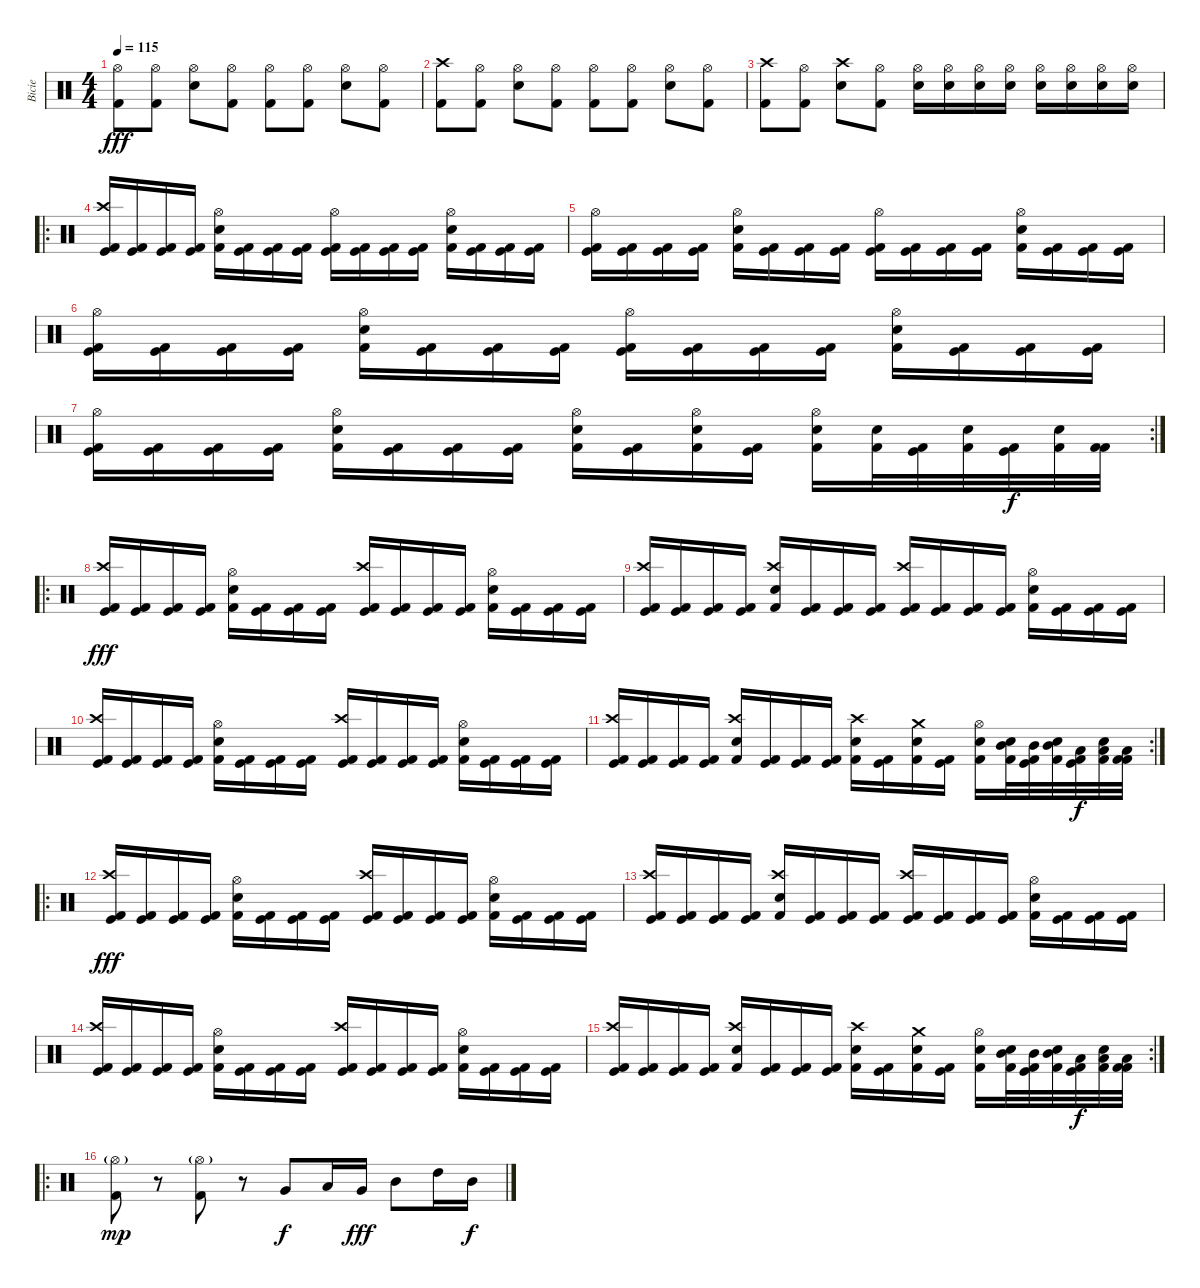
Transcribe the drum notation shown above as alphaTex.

\track ("Bicie" "Bicie") {instrument percussion}
\staff {score}
\articulation defaults
\ts (4 4)
\tempo 115
\clef neutral
\ks c
("Hi-Hat (open)" "Kick (hit) 2").8{dy fff} ("Hi-Hat (open)" "Kick (hit) 2").8 ("Hi-Hat (open)" "Snare (hit) 2").8 ("Hi-Hat (open)" "Kick (hit) 2").8 ("Hi-Hat (open)" "Kick (hit) 2").8 ("Hi-Hat (open)" "Kick (hit) 2").8 ("Hi-Hat (open)" "Snare (hit) 2").8 ("Hi-Hat (open)" "Kick (hit) 2").8 |
("Crash high (hit)" "Kick (hit) 2").8 ("Hi-Hat (open)" "Kick (hit) 2").8 ("Hi-Hat (open)" "Snare (hit) 2").8 ("Hi-Hat (open)" "Kick (hit) 2").8 ("Hi-Hat (open)" "Kick (hit) 2").8 ("Hi-Hat (open)" "Kick (hit) 2").8 ("Hi-Hat (open)" "Snare (hit) 2").8 ("Hi-Hat (open)" "Kick (hit) 2").8 |
("Crash high (hit)" "Kick (hit) 2").8 ("Hi-Hat (open)" "Kick (hit) 2").8 ("Crash high (hit)" "Snare (hit) 2").8 ("Hi-Hat (open)" "Kick (hit) 2").8 ("Hi-Hat (open)" "Electric Snare (hit)").16 ("Hi-Hat (open)" "Electric Snare (hit)").16 ("Hi-Hat (open)" "Electric Snare (hit)").16 ("Hi-Hat (open)" "Electric Snare (hit)").16 ("Hi-Hat (open)" "Electric Snare (hit)").16 ("Hi-Hat (open)" "Electric Snare (hit)").16 ("Hi-Hat (open)" "Electric Snare (hit)").16 ("Hi-Hat (open)" "Electric Snare (hit)").16 |
\ro
("Crash high (hit)" "Kick (hit)" "Kick (hit) 2").16 ("Kick (hit)" "Kick (hit) 2").16 ("Kick (hit)" "Kick (hit) 2").16 ("Kick (hit)" "Kick (hit) 2").16 ("Hi-Hat (open)" "Electric Snare (hit)" "Kick (hit) 2").16 ("Kick (hit)" "Kick (hit) 2").16 ("Kick (hit)" "Kick (hit) 2").16 ("Kick (hit)" "Kick (hit) 2").16 ("Hi-Hat (open)" "Kick (hit)" "Kick (hit) 2").16 ("Kick (hit)" "Kick (hit) 2").16 ("Kick (hit)" "Kick (hit) 2").16 ("Kick (hit)" "Kick (hit) 2").16 ("Hi-Hat (open)" "Electric Snare (hit)" "Kick (hit) 2").16 ("Kick (hit)" "Kick (hit) 2").16 ("Kick (hit)" "Kick (hit) 2").16 ("Kick (hit)" "Kick (hit) 2").16 |
("Hi-Hat (open)" "Kick (hit)" "Kick (hit) 2").16 ("Kick (hit)" "Kick (hit) 2").16 ("Kick (hit)" "Kick (hit) 2").16 ("Kick (hit)" "Kick (hit) 2").16 ("Hi-Hat (open)" "Electric Snare (hit)" "Kick (hit) 2").16 ("Kick (hit)" "Kick (hit) 2").16 ("Kick (hit)" "Kick (hit) 2").16 ("Kick (hit)" "Kick (hit) 2").16 ("Hi-Hat (open)" "Kick (hit)" "Kick (hit) 2").16 ("Kick (hit)" "Kick (hit) 2").16 ("Kick (hit)" "Kick (hit) 2").16 ("Kick (hit)" "Kick (hit) 2").16 ("Hi-Hat (open)" "Electric Snare (hit)" "Kick (hit) 2").16 ("Kick (hit)" "Kick (hit) 2").16 ("Kick (hit)" "Kick (hit) 2").16 ("Kick (hit)" "Kick (hit) 2").16 |
("Hi-Hat (open)" "Kick (hit)" "Kick (hit) 2").16 ("Kick (hit)" "Kick (hit) 2").16 ("Kick (hit)" "Kick (hit) 2").16 ("Kick (hit)" "Kick (hit) 2").16 ("Hi-Hat (open)" "Electric Snare (hit)" "Kick (hit) 2").16 ("Kick (hit)" "Kick (hit) 2").16 ("Kick (hit)" "Kick (hit) 2").16 ("Kick (hit)" "Kick (hit) 2").16 ("Hi-Hat (open)" "Kick (hit)" "Kick (hit) 2").16 ("Kick (hit)" "Kick (hit) 2").16 ("Kick (hit)" "Kick (hit) 2").16 ("Kick (hit)" "Kick (hit) 2").16 ("Hi-Hat (open)" "Electric Snare (hit)" "Kick (hit) 2").16 ("Kick (hit)" "Kick (hit) 2").16 ("Kick (hit)" "Kick (hit) 2").16 ("Kick (hit)" "Kick (hit) 2").16 |
\rc 2
("Hi-Hat (open)" "Kick (hit)" "Kick (hit) 2").16 ("Kick (hit)" "Kick (hit) 2").16 ("Kick (hit)" "Kick (hit) 2").16 ("Kick (hit)" "Kick (hit) 2").16 ("Hi-Hat (open)" "Electric Snare (hit)" "Kick (hit) 2").16 ("Kick (hit)" "Kick (hit) 2").16 ("Kick (hit)" "Kick (hit) 2").16 ("Kick (hit)" "Kick (hit) 2").16 ("Hi-Hat (open)" "Electric Snare (hit)" "Kick (hit) 2").16 ("Kick (hit)" "Kick (hit) 2").16 ("Hi-Hat (open)" "Electric Snare (hit)" "Kick (hit) 2").16 ("Kick (hit)" "Kick (hit) 2").16 ("Hi-Hat (open)" "Electric Snare (hit)" "Kick (hit) 2").16 ("Electric Snare (hit)" "Kick (hit) 2").32 ("Kick (hit)" "Kick (hit) 2").32 ("Electric Snare (hit)" "Kick (hit) 2").32 ("Kick (hit)" "Kick (hit) 2").32{dy f} ("Electric Snare (hit)" "Kick (hit) 2").32 ("Kick (hit) 2" "Kick (hit) 2").32 |
\ro
("Crash high (hit)" "Kick (hit)" "Kick (hit) 2").16{dy fff} ("Kick (hit)" "Kick (hit) 2").16 ("Kick (hit)" "Kick (hit) 2").16 ("Kick (hit)" "Kick (hit) 2").16 ("Hi-Hat (open)" "Electric Snare (hit)" "Kick (hit) 2").16 ("Kick (hit)" "Kick (hit) 2").16 ("Kick (hit)" "Kick (hit) 2").16 ("Kick (hit)" "Kick (hit) 2").16 ("Crash high (hit)" "Kick (hit)" "Kick (hit) 2").16 ("Kick (hit)" "Kick (hit) 2").16 ("Kick (hit)" "Kick (hit) 2").16 ("Kick (hit)" "Kick (hit) 2").16 ("Hi-Hat (open)" "Electric Snare (hit)" "Kick (hit) 2").16 ("Kick (hit)" "Kick (hit) 2").16 ("Kick (hit)" "Kick (hit) 2").16 ("Kick (hit)" "Kick (hit) 2").16 |
("Crash high (hit)" "Kick (hit)" "Kick (hit) 2").16 ("Kick (hit)" "Kick (hit) 2").16 ("Kick (hit)" "Kick (hit) 2").16 ("Kick (hit)" "Kick (hit) 2").16 ("Crash high (hit)" "Electric Snare (hit)" "Kick (hit) 2").16 ("Kick (hit)" "Kick (hit) 2").16 ("Kick (hit)" "Kick (hit) 2").16 ("Kick (hit)" "Kick (hit) 2").16 ("Crash high (hit)" "Kick (hit)" "Kick (hit) 2").16 ("Kick (hit)" "Kick (hit) 2").16 ("Kick (hit)" "Kick (hit) 2").16 ("Kick (hit)" "Kick (hit) 2").16 ("Hi-Hat (open)" "Electric Snare (hit)" "Kick (hit) 2").16 ("Kick (hit)" "Kick (hit) 2").16 ("Kick (hit)" "Kick (hit) 2").16 ("Kick (hit)" "Kick (hit) 2").16 |
("Crash high (hit)" "Kick (hit)" "Kick (hit) 2").16 ("Kick (hit)" "Kick (hit) 2").16 ("Kick (hit)" "Kick (hit) 2").16 ("Kick (hit)" "Kick (hit) 2").16 ("Hi-Hat (open)" "Electric Snare (hit)" "Kick (hit) 2").16 ("Kick (hit)" "Kick (hit) 2").16 ("Kick (hit)" "Kick (hit) 2").16 ("Kick (hit)" "Kick (hit) 2").16 ("Crash high (hit)" "Kick (hit)" "Kick (hit) 2").16 ("Kick (hit)" "Kick (hit) 2").16 ("Kick (hit)" "Kick (hit) 2").16 ("Kick (hit)" "Kick (hit) 2").16 ("Hi-Hat (open)" "Electric Snare (hit)" "Kick (hit) 2").16 ("Kick (hit)" "Kick (hit) 2").16 ("Kick (hit)" "Kick (hit) 2").16 ("Kick (hit)" "Kick (hit) 2").16 |
\rc 2
("Crash high (hit)" "Kick (hit)" "Kick (hit) 2").16 ("Kick (hit)" "Kick (hit) 2").16 ("Kick (hit)" "Kick (hit) 2").16 ("Kick (hit)" "Kick (hit) 2").16 ("Crash high (hit)" "Electric Snare (hit)" "Kick (hit) 2").16 ("Kick (hit)" "Kick (hit) 2").16 ("Kick (hit)" "Kick (hit) 2").16 ("Kick (hit)" "Kick (hit) 2").16 ("Crash high (hit)" "Electric Snare (hit)" "Kick (hit) 2").16 ("Kick (hit)" "Kick (hit) 2").16 ("Crash medium (hit)" "Electric Snare (hit)" "Kick (hit) 2").16 ("Kick (hit)" "Kick (hit) 2").16 ("Hi-Hat (open)" "Electric Snare (hit)" "Kick (hit) 2").16 ("Mid Tom (hit)" "Electric Snare (hit)" "Kick (hit) 2").32 ("Mid Tom (hit)" "Kick (hit)" "Kick (hit) 2").32 ("Mid Tom (hit)" "Electric Snare (hit)" "Kick (hit) 2").32 ("Low Tom (hit)" "Kick (hit)" "Kick (hit) 2").32{dy f} ("Low Tom (hit)" "Electric Snare (hit)" "Kick (hit) 2").32 ("Low Tom (hit)" "Kick (hit) 2" "Kick (hit) 2").32 |
\ro
("Crash high (hit)" "Kick (hit)" "Kick (hit) 2").16{dy fff} ("Kick (hit)" "Kick (hit) 2").16 ("Kick (hit)" "Kick (hit) 2").16 ("Kick (hit)" "Kick (hit) 2").16 ("Hi-Hat (open)" "Electric Snare (hit)" "Kick (hit) 2").16 ("Kick (hit)" "Kick (hit) 2").16 ("Kick (hit)" "Kick (hit) 2").16 ("Kick (hit)" "Kick (hit) 2").16 ("Crash high (hit)" "Kick (hit)" "Kick (hit) 2").16 ("Kick (hit)" "Kick (hit) 2").16 ("Kick (hit)" "Kick (hit) 2").16 ("Kick (hit)" "Kick (hit) 2").16 ("Hi-Hat (open)" "Electric Snare (hit)" "Kick (hit) 2").16 ("Kick (hit)" "Kick (hit) 2").16 ("Kick (hit)" "Kick (hit) 2").16 ("Kick (hit)" "Kick (hit) 2").16 |
("Crash high (hit)" "Kick (hit)" "Kick (hit) 2").16 ("Kick (hit)" "Kick (hit) 2").16 ("Kick (hit)" "Kick (hit) 2").16 ("Kick (hit)" "Kick (hit) 2").16 ("Crash high (hit)" "Electric Snare (hit)" "Kick (hit) 2").16 ("Kick (hit)" "Kick (hit) 2").16 ("Kick (hit)" "Kick (hit) 2").16 ("Kick (hit)" "Kick (hit) 2").16 ("Crash high (hit)" "Kick (hit)" "Kick (hit) 2").16 ("Kick (hit)" "Kick (hit) 2").16 ("Kick (hit)" "Kick (hit) 2").16 ("Kick (hit)" "Kick (hit) 2").16 ("Hi-Hat (open)" "Electric Snare (hit)" "Kick (hit) 2").16 ("Kick (hit)" "Kick (hit) 2").16 ("Kick (hit)" "Kick (hit) 2").16 ("Kick (hit)" "Kick (hit) 2").16 |
("Crash high (hit)" "Kick (hit)" "Kick (hit) 2").16 ("Kick (hit)" "Kick (hit) 2").16 ("Kick (hit)" "Kick (hit) 2").16 ("Kick (hit)" "Kick (hit) 2").16 ("Hi-Hat (open)" "Electric Snare (hit)" "Kick (hit) 2").16 ("Kick (hit)" "Kick (hit) 2").16 ("Kick (hit)" "Kick (hit) 2").16 ("Kick (hit)" "Kick (hit) 2").16 ("Crash high (hit)" "Kick (hit)" "Kick (hit) 2").16 ("Kick (hit)" "Kick (hit) 2").16 ("Kick (hit)" "Kick (hit) 2").16 ("Kick (hit)" "Kick (hit) 2").16 ("Hi-Hat (open)" "Electric Snare (hit)" "Kick (hit) 2").16 ("Kick (hit)" "Kick (hit) 2").16 ("Kick (hit)" "Kick (hit) 2").16 ("Kick (hit)" "Kick (hit) 2").16 |
\rc 2
("Crash high (hit)" "Kick (hit)" "Kick (hit) 2").16 ("Kick (hit)" "Kick (hit) 2").16 ("Kick (hit)" "Kick (hit) 2").16 ("Kick (hit)" "Kick (hit) 2").16 ("Crash high (hit)" "Electric Snare (hit)" "Kick (hit) 2").16 ("Kick (hit)" "Kick (hit) 2").16 ("Kick (hit)" "Kick (hit) 2").16 ("Kick (hit)" "Kick (hit) 2").16 ("Crash high (hit)" "Electric Snare (hit)" "Kick (hit) 2").16 ("Kick (hit)" "Kick (hit) 2").16 ("Crash medium (hit)" "Electric Snare (hit)" "Kick (hit) 2").16 ("Kick (hit)" "Kick (hit) 2").16 ("Hi-Hat (open)" "Electric Snare (hit)" "Kick (hit) 2").16 ("Mid Tom (hit)" "Electric Snare (hit)" "Kick (hit) 2").32 ("Mid Tom (hit)" "Kick (hit)" "Kick (hit) 2").32 ("Mid Tom (hit)" "Electric Snare (hit)" "Kick (hit) 2").32 ("Low Tom (hit)" "Kick (hit)" "Kick (hit) 2").32{dy f} ("Low Tom (hit)" "Electric Snare (hit)" "Kick (hit) 2").32 ("Low Tom (hit)" "Kick (hit) 2" "Kick (hit) 2").32 |
\ro
("Kick (hit) 2" "Hi-Hat (open)"{g}).8{dy mp} r.8 ("Kick (hit) 2" "Hi-Hat (open)"{g}).8 r.8 "Very Low Tom (hit)".8{dy f} "Low Floor Tom (hit)".16 "Very Low Tom (hit)".16{dy fff} "Mid Tom (hit)".8 "High Tom (hit)".16 "Mid Tom (hit)".16{dy f}
